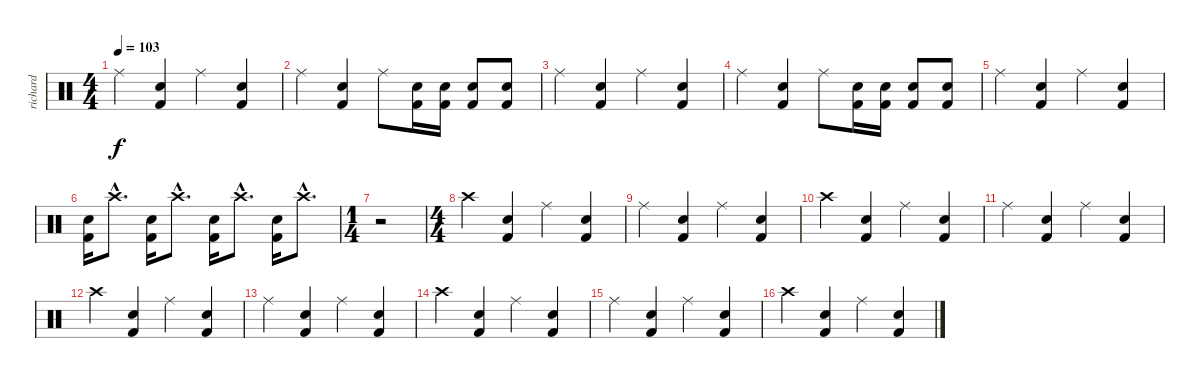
\track ("richard" "richard") {instrument percussion}
\staff {score}
\articulation defaults
\ts (4 4)
\tempo 103
\clef neutral
\ks c "Ride (middle)".4{dy f}
("Snare (hit) 2" "Kick (hit) 2").4 "Ride (middle)".4 ("Snare (hit) 2" "Kick (hit) 2").4 |
"Ride (middle)".4 ("Snare (hit) 2" "Kick (hit) 2").4 "Ride (middle)".8 ("Snare (hit) 2" "Kick (hit) 2").16 ("Snare (hit) 2" "Kick (hit) 2").16 ("Snare (hit) 2" "Kick (hit) 2").8 ("Snare (hit) 2" "Kick (hit) 2").8 |
"Ride (middle)".4 ("Snare (hit) 2" "Kick (hit) 2").4 "Ride (middle)".4 ("Snare (hit) 2" "Kick (hit) 2").4 |
"Ride (middle)".4 ("Snare (hit) 2" "Kick (hit) 2").4 "Ride (middle)".8 ("Snare (hit) 2" "Kick (hit) 2").16 ("Snare (hit) 2" "Kick (hit) 2").16 ("Snare (hit) 2" "Kick (hit) 2").8 ("Snare (hit) 2" "Kick (hit) 2").8 |
"Ride (middle)".4 ("Snare (hit) 2" "Kick (hit) 2").4 "Ride (middle)".4 ("Snare (hit) 2" "Kick (hit) 2").4 |
("Snare (hit) 2" "Kick (hit) 2").16 "Crash high (hit)"{hac}.8{d} ("Snare (hit) 2" "Kick (hit) 2").16 "Crash high (hit)"{hac}.8{d} ("Snare (hit) 2" "Kick (hit) 2").16 "Crash high (hit)"{hac}.8{d} ("Snare (hit) 2" "Kick (hit) 2").16 "Crash high (hit)"{hac}.8{d} |
\ts (1 4)
r.2 |
\ts (4 4)
"Crash high (hit)".4 ("Snare (hit) 2" "Kick (hit) 2").4 "Ride (middle)".4 ("Snare (hit) 2" "Kick (hit) 2").4 |
"Ride (middle)".4 ("Snare (hit) 2" "Kick (hit) 2").4 "Ride (middle)".4 ("Snare (hit) 2" "Kick (hit) 2").4 |
"Crash high (hit)".4 ("Snare (hit) 2" "Kick (hit) 2").4 "Ride (middle)".4 ("Snare (hit) 2" "Kick (hit) 2").4 |
"Ride (middle)".4 ("Snare (hit) 2" "Kick (hit) 2").4 "Ride (middle)".4 ("Snare (hit) 2" "Kick (hit) 2").4 |
"Crash high (hit)".4 ("Snare (hit) 2" "Kick (hit) 2").4 "Ride (middle)".4 ("Snare (hit) 2" "Kick (hit) 2").4 |
"Ride (middle)".4 ("Snare (hit) 2" "Kick (hit) 2").4 "Ride (middle)".4 ("Snare (hit) 2" "Kick (hit) 2").4 |
"Crash high (hit)".4 ("Snare (hit) 2" "Kick (hit) 2").4 "Ride (middle)".4 ("Snare (hit) 2" "Kick (hit) 2").4 |
"Ride (middle)".4 ("Snare (hit) 2" "Kick (hit) 2").4 "Ride (middle)".4 ("Snare (hit) 2" "Kick (hit) 2").4 |
"Crash high (hit)".4 ("Snare (hit) 2" "Kick (hit) 2").4 "Ride (middle)".4 ("Snare (hit) 2" "Kick (hit) 2").4
